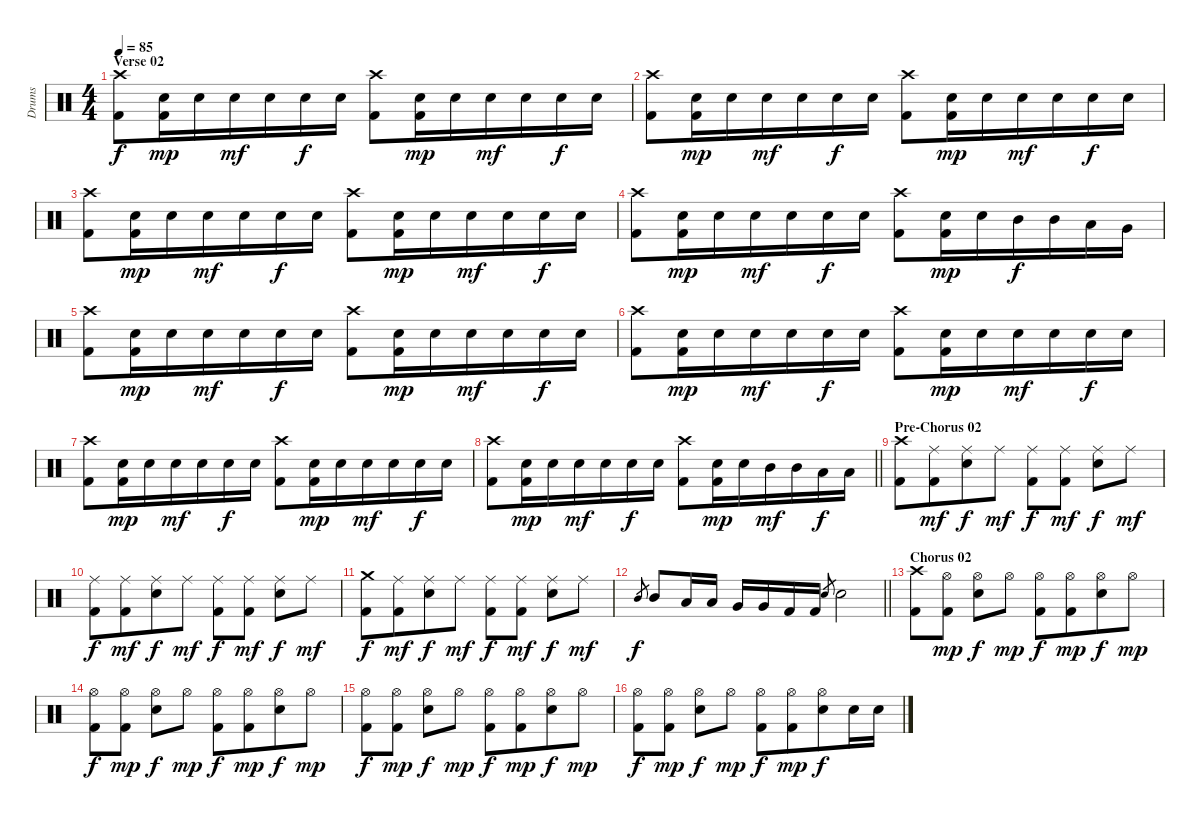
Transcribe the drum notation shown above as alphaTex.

\track ("Drums" "Drums") {instrument percussion}
\staff {score}
\articulation defaults
\ts (4 4)
\section ("" "Verse 02")
\tempo 85
\clef neutral
\ks c
("Crash high (hit)" "Kick (hit) 2").8{dy f} ("Snare (hit) 2" "Kick (hit) 2").16{dy mp} "Snare (hit) 2".16{beam merge} "Snare (hit) 2".16{dy mf} "Snare (hit) 2".16 "Snare (hit) 2".16{dy f} "Snare (hit) 2".16 ("Crash high (hit)" "Kick (hit) 2").8 ("Snare (hit) 2" "Kick (hit) 2").16{dy mp} "Snare (hit) 2".16{beam merge} "Snare (hit) 2".16{dy mf} "Snare (hit) 2".16 "Snare (hit) 2".16{dy f} "Snare (hit) 2".16 |
("Crash high (hit)" "Kick (hit) 2").8 ("Snare (hit) 2" "Kick (hit) 2").16{dy mp} "Snare (hit) 2".16{beam merge} "Snare (hit) 2".16{dy mf} "Snare (hit) 2".16 "Snare (hit) 2".16{dy f} "Snare (hit) 2".16 ("Crash high (hit)" "Kick (hit) 2").8 ("Snare (hit) 2" "Kick (hit) 2").16{dy mp} "Snare (hit) 2".16{beam merge} "Snare (hit) 2".16{dy mf} "Snare (hit) 2".16 "Snare (hit) 2".16{dy f} "Snare (hit) 2".16 |
("Crash high (hit)" "Kick (hit) 2").8 ("Snare (hit) 2" "Kick (hit) 2").16{dy mp} "Snare (hit) 2".16{beam merge} "Snare (hit) 2".16{dy mf} "Snare (hit) 2".16 "Snare (hit) 2".16{dy f} "Snare (hit) 2".16 ("Crash high (hit)" "Kick (hit) 2").8 ("Snare (hit) 2" "Kick (hit) 2").16{dy mp} "Snare (hit) 2".16{beam merge} "Snare (hit) 2".16{dy mf} "Snare (hit) 2".16 "Snare (hit) 2".16{dy f} "Snare (hit) 2".16 |
("Crash high (hit)" "Kick (hit) 2").8 ("Snare (hit) 2" "Kick (hit) 2").16{dy mp} "Snare (hit) 2".16{beam merge} "Snare (hit) 2".16{dy mf} "Snare (hit) 2".16 "Snare (hit) 2".16{dy f} "Snare (hit) 2".16 ("Crash high (hit)" "Kick (hit) 2").8 ("Snare (hit) 2" "Kick (hit) 2").16{dy mp} "Snare (hit) 2".16{beam merge} "Mid Tom (hit)".16{dy f} "Mid Tom (hit)".16 "Low Tom (hit)".16 "Very Low Tom (hit)".16 |
("Crash high (hit)" "Kick (hit) 2").8 ("Snare (hit) 2" "Kick (hit) 2").16{dy mp} "Snare (hit) 2".16{beam merge} "Snare (hit) 2".16{dy mf} "Snare (hit) 2".16 "Snare (hit) 2".16{dy f} "Snare (hit) 2".16 ("Crash high (hit)" "Kick (hit) 2").8 ("Snare (hit) 2" "Kick (hit) 2").16{dy mp} "Snare (hit) 2".16{beam merge} "Snare (hit) 2".16{dy mf} "Snare (hit) 2".16 "Snare (hit) 2".16{dy f} "Snare (hit) 2".16 |
("Crash high (hit)" "Kick (hit) 2").8 ("Snare (hit) 2" "Kick (hit) 2").16{dy mp} "Snare (hit) 2".16{beam merge} "Snare (hit) 2".16{dy mf} "Snare (hit) 2".16 "Snare (hit) 2".16{dy f} "Snare (hit) 2".16 ("Crash high (hit)" "Kick (hit) 2").8 ("Snare (hit) 2" "Kick (hit) 2").16{dy mp} "Snare (hit) 2".16{beam merge} "Snare (hit) 2".16{dy mf} "Snare (hit) 2".16 "Snare (hit) 2".16{dy f} "Snare (hit) 2".16 |
("Crash high (hit)" "Kick (hit) 2").8 ("Snare (hit) 2" "Kick (hit) 2").16{dy mp} "Snare (hit) 2".16{beam merge} "Snare (hit) 2".16{dy mf} "Snare (hit) 2".16 "Snare (hit) 2".16{dy f} "Snare (hit) 2".16 ("Crash high (hit)" "Kick (hit) 2").8 ("Snare (hit) 2" "Kick (hit) 2").16{dy mp} "Snare (hit) 2".16{beam merge} "Snare (hit) 2".16{dy mf} "Snare (hit) 2".16 "Snare (hit) 2".16{dy f} "Snare (hit) 2".16 |
\barLineRight lightlight
("Crash high (hit)" "Kick (hit) 2").8 ("Snare (hit) 2" "Kick (hit) 2").16{dy mp} "Snare (hit) 2".16{beam merge} "Snare (hit) 2".16{dy mf} "Snare (hit) 2".16 "Snare (hit) 2".16{dy f} "Snare (hit) 2".16 ("Crash high (hit)" "Kick (hit) 2").8 ("Snare (hit) 2" "Kick (hit) 2").16{dy mp} "Snare (hit) 2".16{beam merge} "Mid Tom (hit)".16{dy mf} "Mid Tom (hit)".16 "Low Tom (hit)".16{dy f} "Low Tom (hit)".16 |
\section ("" "Pre-Chorus 02")
("Crash high (hit)" "Kick (hit) 2").8{beam merge} ("Ride (middle)" "Kick (hit) 2").8{dy mf beam merge} ("Ride (middle)" "Snare (hit) 2").8{dy f beam merge} "Ride (middle)".8{dy mf} ("Ride (middle)" "Kick (hit) 2").8{dy f} ("Ride (middle)" "Kick (hit) 2").8{dy mf} ("Ride (middle)" "Snare (hit) 2").8{dy f} "Ride (middle)".8{dy mf} |
("Ride (middle)" "Kick (hit) 2").8{dy f beam merge} ("Ride (middle)" "Kick (hit) 2").8{dy mf beam merge} ("Ride (middle)" "Snare (hit) 2").8{dy f beam merge} "Ride (middle)".8{dy mf} ("Ride (middle)" "Kick (hit) 2").8{dy f} ("Ride (middle)" "Kick (hit) 2").8{dy mf} ("Ride (middle)" "Snare (hit) 2").8{dy f} "Ride (middle)".8{dy mf} |
("Crash medium (hit)" "Kick (hit) 2").8{dy f beam merge} ("Ride (middle)" "Kick (hit) 2").8{dy mf beam merge} ("Ride (middle)" "Snare (hit) 2").8{dy f beam merge} "Ride (middle)".8{dy mf} ("Ride (middle)" "Kick (hit) 2").8{dy f} ("Ride (middle)" "Kick (hit) 2").8{dy mf} ("Ride (middle)" "Snare (hit) 2").8{dy f} "Ride (middle)".8{dy mf} |
\barLineRight lightlight "Mid Tom (hit)".8{gr dy f} "Mid Tom (hit)".8 "Low Tom (hit)".16 "Low Tom (hit)".16 "Very Low Tom (hit)".16{beam merge} "Very Low Tom (hit)".16 "Kick (hit) 2".16{beam merge} "Kick (hit) 2".16 "Snare (hit) 2".8{gr beam merge} "Snare (hit) 2".2
|
\section ("" "Chorus 02")
("Crash high (hit)" "Kick (hit) 2").8{beam merge} ("Hi-Hat (open)" "Kick (hit) 2").8{dy mp} ("Hi-Hat (open)" "Snare (hit) 2").8{dy f beam merge} "Hi-Hat (open)".8{dy mp} ("Hi-Hat (open)" "Kick (hit) 2").8{dy f beam merge} ("Hi-Hat (open)" "Kick (hit) 2").8{dy mp beam merge} ("Hi-Hat (open)" "Snare (hit) 2").8{dy f} "Hi-Hat (open)".8{dy mp} |
("Hi-Hat (open)" "Kick (hit) 2").8{dy f beam merge} ("Hi-Hat (open)" "Kick (hit) 2").8{dy mp} ("Hi-Hat (open)" "Snare (hit) 2").8{dy f beam merge} "Hi-Hat (open)".8{dy mp} ("Hi-Hat (open)" "Kick (hit) 2").8{dy f beam merge} ("Hi-Hat (open)" "Kick (hit) 2").8{dy mp beam merge} ("Hi-Hat (open)" "Snare (hit) 2").8{dy f} "Hi-Hat (open)".8{dy mp} |
("Hi-Hat (open)" "Kick (hit) 2").8{dy f beam merge} ("Hi-Hat (open)" "Kick (hit) 2").8{dy mp} ("Hi-Hat (open)" "Snare (hit) 2").8{dy f beam merge} "Hi-Hat (open)".8{dy mp} ("Hi-Hat (open)" "Kick (hit) 2").8{dy f beam merge} ("Hi-Hat (open)" "Kick (hit) 2").8{dy mp beam merge} ("Hi-Hat (open)" "Snare (hit) 2").8{dy f} "Hi-Hat (open)".8{dy mp} |
("Hi-Hat (open)" "Kick (hit) 2").8{dy f beam merge} ("Hi-Hat (open)" "Kick (hit) 2").8{dy mp} ("Hi-Hat (open)" "Snare (hit) 2").8{dy f beam merge} "Hi-Hat (open)".8{dy mp} ("Hi-Hat (open)" "Kick (hit) 2").8{dy f beam merge} ("Hi-Hat (open)" "Kick (hit) 2").8{dy mp beam merge} ("Hi-Hat (open)" "Snare (hit) 2").8{dy f} "Snare (hit) 2".16{beam merge} "Snare (hit) 2".16
